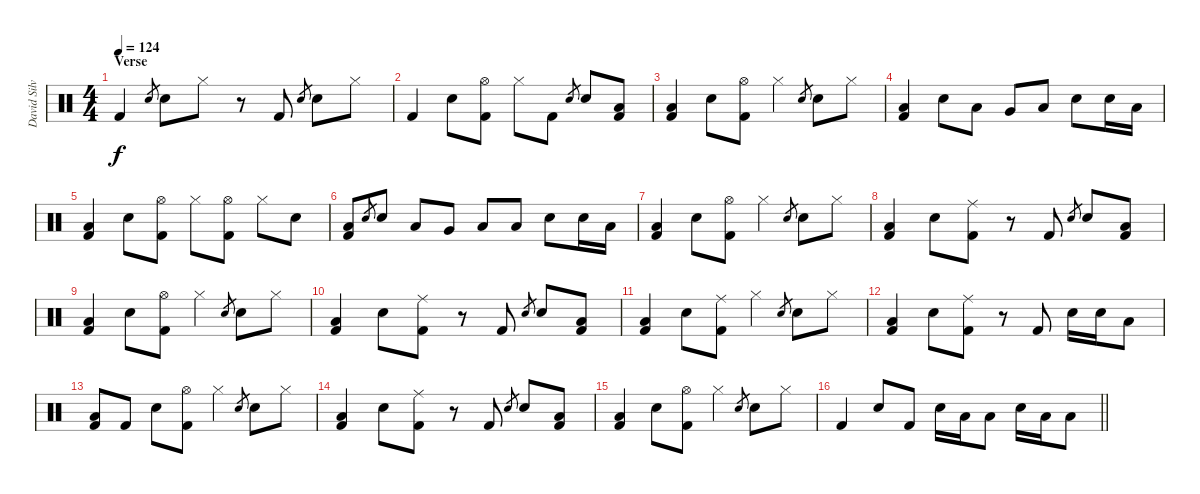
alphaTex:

\track ("David Silvera" "David Silv") {instrument percussion}
\staff {score}
\articulation defaults
\ts (4 4)
\section ("" "Verse")
\tempo 124
\clef neutral
\ks c "Kick (hit) 2".4{dy f} "Electric Snare (hit)".8{gr} "Electric Snare (hit)".8 "Hi-Hat (closed)".8
r.8 "Kick (hit) 2".8 "Electric Snare (hit)".8{gr} "Electric Snare (hit)".8 "Hi-Hat (closed)".8 |
"Kick (hit) 2".4 "Electric Snare (hit)".8 ("Hi-Hat (open)" "Kick (hit) 2").8 "Hi-Hat (closed)".8 "Kick (hit) 2".8 "Electric Snare (hit)".8{gr} "Electric Snare (hit)".8 ("Low Tom (hit)" "Kick (hit) 2").8 |
("Low Tom (hit)" "Kick (hit) 2").4 "Electric Snare (hit)".8 ("Hi-Hat (open)" "Kick (hit) 2").8 "Hi-Hat (closed)".4 "Electric Snare (hit)".8{gr} "Electric Snare (hit)".8 "Hi-Hat (closed)".8 |
("Low Tom (hit)" "Kick (hit) 2").4 "Electric Snare (hit)".8 "Low Tom (hit)".8 "Very Low Tom (hit)".8 "Low Floor Tom (hit)".8 "Electric Snare (hit)".8 "Electric Snare (hit)".16 "Low Floor Tom (hit)".16 |
("Low Tom (hit)" "Kick (hit) 2").4 "Electric Snare (hit)".8 ("Hi-Hat (open)" "Kick (hit) 2").8 "Hi-Hat (closed)".8 ("Hi-Hat (open)" "Kick (hit) 2").8 "Hi-Hat (closed)".8 "Electric Snare (hit)".8 |
("Low Tom (hit)" "Kick (hit) 2").8 "Electric Snare (hit)".8{gr} "Electric Snare (hit)".8 "Low Tom (hit)".8 "Very Low Tom (hit)".8 "Low Floor Tom (hit)".8 "Low Floor Tom (hit)".8 "Electric Snare (hit)".8 "Electric Snare (hit)".16 "Low Floor Tom (hit)".16 |
("Low Tom (hit)" "Kick (hit) 2").4 "Electric Snare (hit)".8 ("Hi-Hat (open)" "Kick (hit) 2").8 "Hi-Hat (closed)".4 "Electric Snare (hit)".8{gr} "Electric Snare (hit)".8 "Hi-Hat (closed)".8 |
("Low Tom (hit)" "Kick (hit) 2").4 "Electric Snare (hit)".8 ("Ride (middle)" "Kick (hit) 2").8 r.8 "Kick (hit) 2".8 "Electric Snare (hit)".8{gr} "Electric Snare (hit)".8 ("Low Floor Tom (hit)" "Kick (hit) 2").8 |
("Low Tom (hit)" "Kick (hit) 2").4 "Electric Snare (hit)".8 ("Hi-Hat (open)" "Kick (hit) 2").8 "Hi-Hat (closed)".4 "Electric Snare (hit)".8{gr} "Electric Snare (hit)".8 "Hi-Hat (closed)".8 |
("Low Tom (hit)" "Kick (hit) 2").4 "Electric Snare (hit)".8 ("Ride (middle)" "Kick (hit) 2").8 r.8 "Kick (hit) 2".8 "Electric Snare (hit)".8{gr} "Electric Snare (hit)".8 ("Low Floor Tom (hit)" "Kick (hit) 2").8 |
("Low Tom (hit)" "Kick (hit) 2").4 "Electric Snare (hit)".8 ("Ride (middle)" "Kick (hit) 2").8 "Hi-Hat (closed)".4 "Electric Snare (hit)".8{gr} "Electric Snare (hit)".8 "Hi-Hat (closed)".8 |
("Low Tom (hit)" "Kick (hit) 2").4 "Electric Snare (hit)".8 ("Ride (middle)" "Kick (hit) 2").8 r.8 "Kick (hit) 2".8 "Electric Snare (hit)".16 "Electric Snare (hit)".16 "Low Floor Tom (hit)".8 |
("Low Tom (hit)" "Kick (hit) 2").8 "Kick (hit) 2".8 "Electric Snare (hit)".8 ("Hi-Hat (open)" "Kick (hit) 2").8 "Hi-Hat (closed)".4 "Electric Snare (hit)".8{gr} "Electric Snare (hit)".8 "Hi-Hat (closed)".8 |
("Low Tom (hit)" "Kick (hit) 2").4 "Electric Snare (hit)".8 ("Ride (middle)" "Kick (hit) 2").8 r.8 "Kick (hit) 2".8 "Electric Snare (hit)".8{gr} "Electric Snare (hit)".8 ("Low Floor Tom (hit)" "Kick (hit) 2").8 |
("Low Tom (hit)" "Kick (hit) 2").4 "Electric Snare (hit)".8 ("Hi-Hat (open)" "Kick (hit) 2").8 "Hi-Hat (closed)".4 "Electric Snare (hit)".8{gr} "Electric Snare (hit)".8 "Hi-Hat (closed)".8 |
\barLineRight lightlight "Kick (hit) 2".4 "Electric Snare (hit)".8 "Kick (hit) 2".8 "Electric Snare (hit)".16 "Low Tom (hit)".16 "Low Tom (hit)".8 "Electric Snare (hit)".16 "Low Tom (hit)".16 "Low Tom (hit)".8
